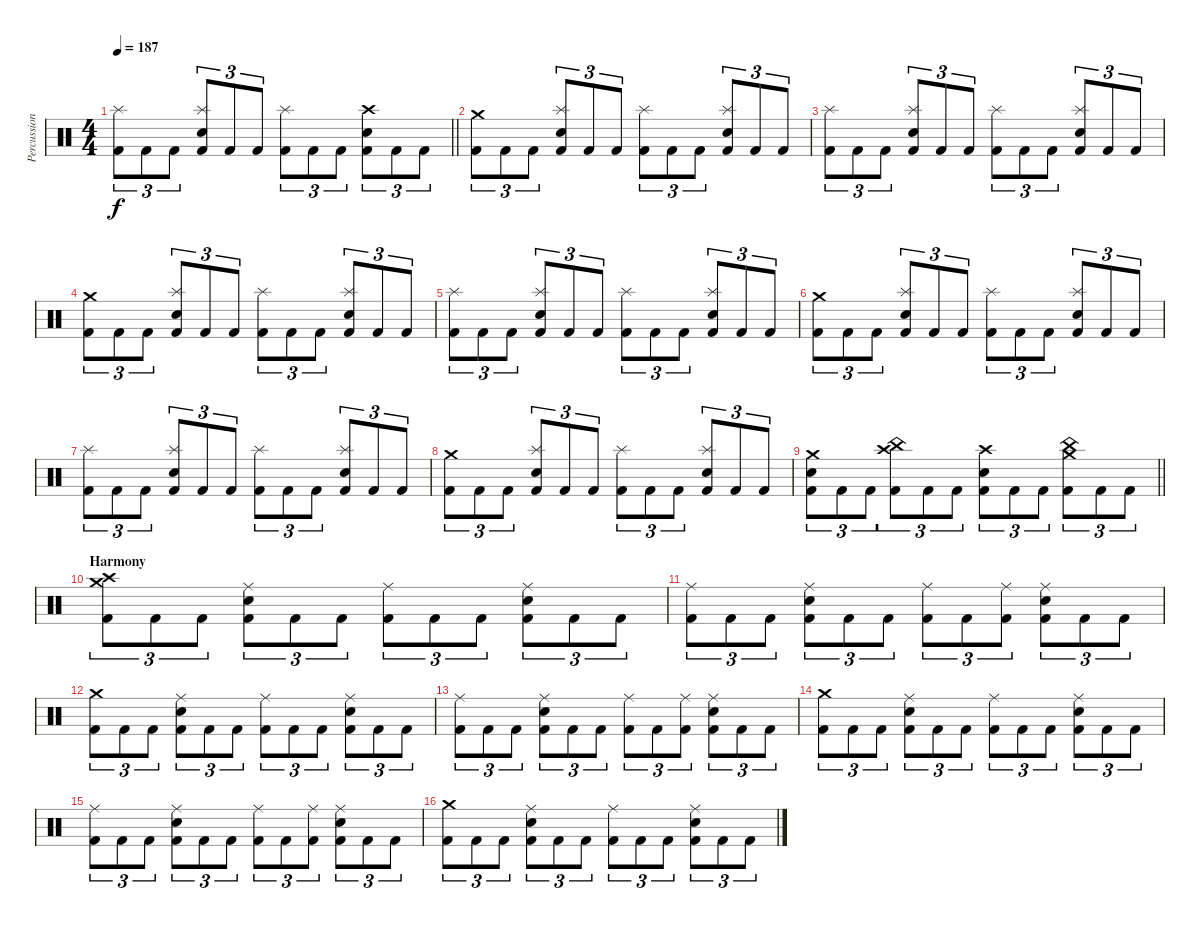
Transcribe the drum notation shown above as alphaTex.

\track ("Percussion" "Percussion") {instrument percussion}
\staff {score}
\articulation defaults
\ts (4 4)
\tempo 187
\clef neutral
\barLineRight lightlight
\ks c
("Kick (hit) 2" "Splash (hit)").8{tu (3 2) dy f} "Kick (hit) 2".8{tu (3 2)} "Kick (hit) 2".8{tu (3 2)} ("Kick (hit) 2" "Snare (hit) 2" "Splash (hit)").8{tu (3 2)} "Kick (hit) 2".8{tu (3 2)} "Kick (hit) 2".8{tu (3 2)} ("Kick (hit) 2" "Splash (hit)").8{tu (3 2)} "Kick (hit) 2".8{tu (3 2)} "Kick (hit) 2".8{tu (3 2)} ("Kick (hit) 2" "Snare (hit) 2" "Crash high (hit)").8{tu (3 2)} "Kick (hit) 2".8{tu (3 2)} "Kick (hit) 2".8{tu (3 2)} |
\section ("" "")
("Kick (hit) 2" "Crash medium (hit)").8{tu (3 2)} "Kick (hit) 2".8{tu (3 2)} "Kick (hit) 2".8{tu (3 2)} ("Kick (hit) 2" "Snare (hit) 2" "Splash (hit)").8{tu (3 2)} "Kick (hit) 2".8{tu (3 2)} "Kick (hit) 2".8{tu (3 2)} ("Kick (hit) 2" "Splash (hit)").8{tu (3 2)} "Kick (hit) 2".8{tu (3 2)} "Kick (hit) 2".8{tu (3 2)} ("Kick (hit) 2" "Snare (hit) 2" "Splash (hit)").8{tu (3 2)} "Kick (hit) 2".8{tu (3 2)} "Kick (hit) 2".8{tu (3 2)} |
("Kick (hit) 2" "Splash (hit)").8{tu (3 2)} "Kick (hit) 2".8{tu (3 2)} "Kick (hit) 2".8{tu (3 2)} ("Kick (hit) 2" "Snare (hit) 2" "Splash (hit)").8{tu (3 2)} "Kick (hit) 2".8{tu (3 2)} "Kick (hit) 2".8{tu (3 2)} ("Kick (hit) 2" "Splash (hit)").8{tu (3 2)} "Kick (hit) 2".8{tu (3 2)} "Kick (hit) 2".8{tu (3 2)} ("Kick (hit) 2" "Snare (hit) 2" "Splash (hit)").8{tu (3 2)} "Kick (hit) 2".8{tu (3 2)} "Kick (hit) 2".8{tu (3 2)} |
("Kick (hit) 2" "Crash medium (hit)").8{tu (3 2)} "Kick (hit) 2".8{tu (3 2)} "Kick (hit) 2".8{tu (3 2)} ("Kick (hit) 2" "Snare (hit) 2" "Splash (hit)").8{tu (3 2)} "Kick (hit) 2".8{tu (3 2)} "Kick (hit) 2".8{tu (3 2)} ("Kick (hit) 2" "Splash (hit)").8{tu (3 2)} "Kick (hit) 2".8{tu (3 2)} "Kick (hit) 2".8{tu (3 2)} ("Kick (hit) 2" "Snare (hit) 2" "Splash (hit)").8{tu (3 2)} "Kick (hit) 2".8{tu (3 2)} "Kick (hit) 2".8{tu (3 2)} |
("Kick (hit) 2" "Splash (hit)").8{tu (3 2)} "Kick (hit) 2".8{tu (3 2)} "Kick (hit) 2".8{tu (3 2)} ("Kick (hit) 2" "Snare (hit) 2" "Splash (hit)").8{tu (3 2)} "Kick (hit) 2".8{tu (3 2)} "Kick (hit) 2".8{tu (3 2)} ("Kick (hit) 2" "Splash (hit)").8{tu (3 2)} "Kick (hit) 2".8{tu (3 2)} "Kick (hit) 2".8{tu (3 2)} ("Kick (hit) 2" "Snare (hit) 2" "Splash (hit)").8{tu (3 2)} "Kick (hit) 2".8{tu (3 2)} "Kick (hit) 2".8{tu (3 2)} |
("Kick (hit) 2" "Crash medium (hit)").8{tu (3 2)} "Kick (hit) 2".8{tu (3 2)} "Kick (hit) 2".8{tu (3 2)} ("Kick (hit) 2" "Snare (hit) 2" "Splash (hit)").8{tu (3 2)} "Kick (hit) 2".8{tu (3 2)} "Kick (hit) 2".8{tu (3 2)} ("Kick (hit) 2" "Splash (hit)").8{tu (3 2)} "Kick (hit) 2".8{tu (3 2)} "Kick (hit) 2".8{tu (3 2)} ("Kick (hit) 2" "Snare (hit) 2" "Splash (hit)").8{tu (3 2)} "Kick (hit) 2".8{tu (3 2)} "Kick (hit) 2".8{tu (3 2)} |
("Kick (hit) 2" "Splash (hit)").8{tu (3 2)} "Kick (hit) 2".8{tu (3 2)} "Kick (hit) 2".8{tu (3 2)} ("Kick (hit) 2" "Snare (hit) 2" "Splash (hit)").8{tu (3 2)} "Kick (hit) 2".8{tu (3 2)} "Kick (hit) 2".8{tu (3 2)} ("Kick (hit) 2" "Splash (hit)").8{tu (3 2)} "Kick (hit) 2".8{tu (3 2)} "Kick (hit) 2".8{tu (3 2)} ("Kick (hit) 2" "Snare (hit) 2" "Splash (hit)").8{tu (3 2)} "Kick (hit) 2".8{tu (3 2)} "Kick (hit) 2".8{tu (3 2)} |
("Kick (hit) 2" "Crash medium (hit)").8{tu (3 2)} "Kick (hit) 2".8{tu (3 2)} "Kick (hit) 2".8{tu (3 2)} ("Kick (hit) 2" "Snare (hit) 2" "Splash (hit)").8{tu (3 2)} "Kick (hit) 2".8{tu (3 2)} "Kick (hit) 2".8{tu (3 2)} ("Kick (hit) 2" "Splash (hit)").8{tu (3 2)} "Kick (hit) 2".8{tu (3 2)} "Kick (hit) 2".8{tu (3 2)} ("Kick (hit) 2" "Snare (hit) 2" "Splash (hit)").8{tu (3 2)} "Kick (hit) 2".8{tu (3 2)} "Kick (hit) 2".8{tu (3 2)} |
\barLineRight lightlight
("Kick (hit) 2" "Snare (hit) 2" "Crash medium (hit)").8{tu (3 2)} "Kick (hit) 2".8{tu (3 2)} "Kick (hit) 2".8{tu (3 2)} ("Kick (hit) 2" "Crash high (hit)" "China (hit)").8{tu (3 2)} "Kick (hit) 2".8{tu (3 2)} "Kick (hit) 2".8{tu (3 2)} ("Kick (hit) 2" "Snare (hit) 2" "Crash high (hit)").8{tu (3 2)} "Kick (hit) 2".8{tu (3 2)} "Kick (hit) 2".8{tu (3 2)} ("Kick (hit) 2" "Crash medium (hit)" "China (hit)").8{tu (3 2)} "Kick (hit) 2".8{tu (3 2)} "Kick (hit) 2".8{tu (3 2)} |
\section ("" "Harmony")
("Kick (hit) 2" "Crash medium (hit)" "Crash high (hit)").8{tu (3 2)} "Kick (hit) 2".8{tu (3 2)} "Kick (hit) 2".8{tu (3 2)} ("Kick (hit) 2" "Snare (hit) 2" "Ride (middle)").8{tu (3 2)} "Kick (hit) 2".8{tu (3 2)} "Kick (hit) 2".8{tu (3 2)} ("Kick (hit) 2" "Ride (middle)").8{tu (3 2)} "Kick (hit) 2".8{tu (3 2)} "Kick (hit) 2".8{tu (3 2)} ("Kick (hit) 2" "Snare (hit) 2" "Ride (middle)").8{tu (3 2)} "Kick (hit) 2".8{tu (3 2)} "Kick (hit) 2".8{tu (3 2)} |
("Kick (hit) 2" "Ride (middle)").8{tu (3 2)} "Kick (hit) 2".8{tu (3 2)} "Kick (hit) 2".8{tu (3 2)} ("Kick (hit) 2" "Snare (hit) 2" "Ride (middle)").8{tu (3 2)} "Kick (hit) 2".8{tu (3 2)} "Kick (hit) 2".8{tu (3 2)} ("Kick (hit) 2" "Ride (middle)").8{tu (3 2)} "Kick (hit) 2".8{tu (3 2)} ("Kick (hit) 2" "Ride (middle)").8{tu (3 2)} ("Kick (hit) 2" "Snare (hit) 2" "Ride (middle)").8{tu (3 2)} "Kick (hit) 2".8{tu (3 2)} "Kick (hit) 2".8{tu (3 2)} |
("Kick (hit) 2" "Crash medium (hit)").8{tu (3 2)} "Kick (hit) 2".8{tu (3 2)} "Kick (hit) 2".8{tu (3 2)} ("Kick (hit) 2" "Snare (hit) 2" "Ride (middle)").8{tu (3 2)} "Kick (hit) 2".8{tu (3 2)} "Kick (hit) 2".8{tu (3 2)} ("Kick (hit) 2" "Ride (middle)").8{tu (3 2)} "Kick (hit) 2".8{tu (3 2)} "Kick (hit) 2".8{tu (3 2)} ("Kick (hit) 2" "Snare (hit) 2" "Ride (middle)").8{tu (3 2)} "Kick (hit) 2".8{tu (3 2)} "Kick (hit) 2".8{tu (3 2)} |
("Kick (hit) 2" "Ride (middle)").8{tu (3 2)} "Kick (hit) 2".8{tu (3 2)} "Kick (hit) 2".8{tu (3 2)} ("Kick (hit) 2" "Snare (hit) 2" "Ride (middle)").8{tu (3 2)} "Kick (hit) 2".8{tu (3 2)} "Kick (hit) 2".8{tu (3 2)} ("Kick (hit) 2" "Ride (middle)").8{tu (3 2)} "Kick (hit) 2".8{tu (3 2)} ("Kick (hit) 2" "Ride (middle)").8{tu (3 2)} ("Kick (hit) 2" "Snare (hit) 2" "Ride (middle)").8{tu (3 2)} "Kick (hit) 2".8{tu (3 2)} "Kick (hit) 2".8{tu (3 2)} |
("Kick (hit) 2" "Crash medium (hit)").8{tu (3 2)} "Kick (hit) 2".8{tu (3 2)} "Kick (hit) 2".8{tu (3 2)} ("Kick (hit) 2" "Snare (hit) 2" "Ride (middle)").8{tu (3 2)} "Kick (hit) 2".8{tu (3 2)} "Kick (hit) 2".8{tu (3 2)} ("Kick (hit) 2" "Ride (middle)").8{tu (3 2)} "Kick (hit) 2".8{tu (3 2)} "Kick (hit) 2".8{tu (3 2)} ("Kick (hit) 2" "Snare (hit) 2" "Ride (middle)").8{tu (3 2)} "Kick (hit) 2".8{tu (3 2)} "Kick (hit) 2".8{tu (3 2)} |
("Kick (hit) 2" "Ride (middle)").8{tu (3 2)} "Kick (hit) 2".8{tu (3 2)} "Kick (hit) 2".8{tu (3 2)} ("Kick (hit) 2" "Snare (hit) 2" "Ride (middle)").8{tu (3 2)} "Kick (hit) 2".8{tu (3 2)} "Kick (hit) 2".8{tu (3 2)} ("Kick (hit) 2" "Ride (middle)").8{tu (3 2)} "Kick (hit) 2".8{tu (3 2)} ("Kick (hit) 2" "Ride (middle)").8{tu (3 2)} ("Kick (hit) 2" "Snare (hit) 2" "Ride (middle)").8{tu (3 2)} "Kick (hit) 2".8{tu (3 2)} "Kick (hit) 2".8{tu (3 2)} |
("Kick (hit) 2" "Crash medium (hit)").8{tu (3 2)} "Kick (hit) 2".8{tu (3 2)} "Kick (hit) 2".8{tu (3 2)} ("Kick (hit) 2" "Snare (hit) 2" "Ride (middle)").8{tu (3 2)} "Kick (hit) 2".8{tu (3 2)} "Kick (hit) 2".8{tu (3 2)} ("Kick (hit) 2" "Ride (middle)").8{tu (3 2)} "Kick (hit) 2".8{tu (3 2)} "Kick (hit) 2".8{tu (3 2)} ("Kick (hit) 2" "Snare (hit) 2" "Ride (middle)").8{tu (3 2)} "Kick (hit) 2".8{tu (3 2)} "Kick (hit) 2".8{tu (3 2)}
